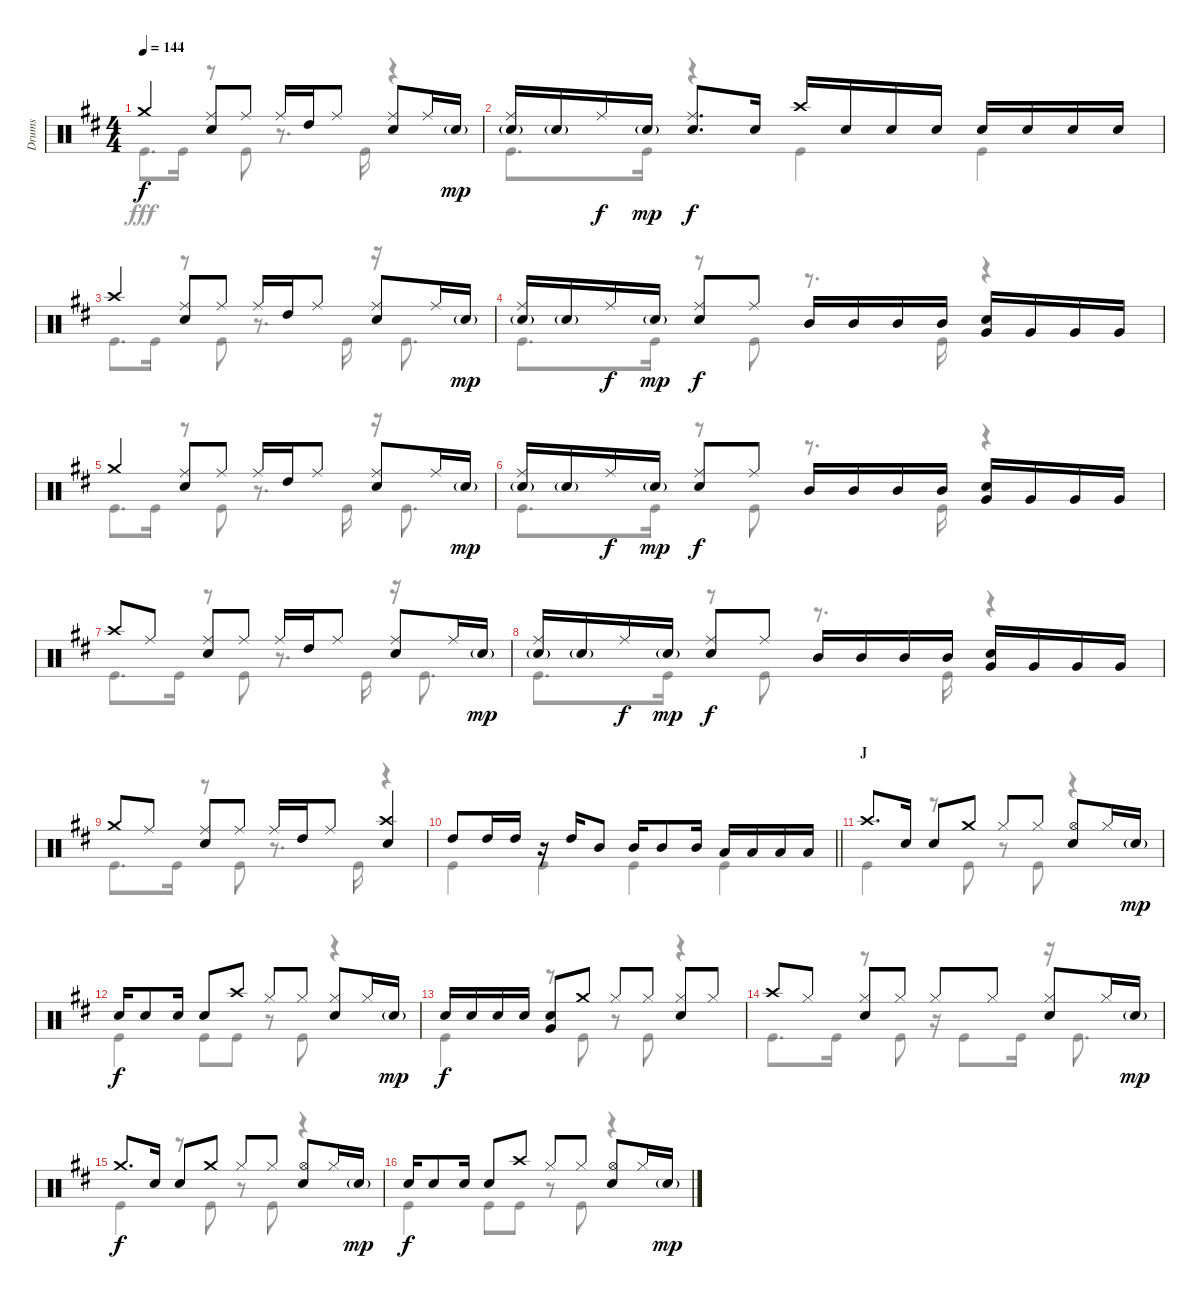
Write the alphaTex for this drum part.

\track ("Drums" "Drums") {instrument percussion}
\staff {score}
\articulation defaults
\voice
\ts (4 4)
\tempo 144
\clef neutral
\ks d "Crash medium (hit)".4{dy f}
("Ride (middle)" "Snare (hit) 2").8 "Ride (middle)".8 "Ride (middle)".16 "High Tom (hit)".16 "Ride (middle)".8 ("Ride (middle)" "Snare (hit) 2").8 "Ride (middle)".16 "Snare (hit) 2"{g}.16{dy mp} |
("Ride (middle)" "Snare (hit) 2"{g}).16 "Snare (hit) 2"{g}.16 "Ride (middle)".16{dy f} "Snare (hit) 2"{g}.16{dy mp} ("Ride (middle)" "Snare (hit) 2").8{d dy f} "Snare (hit) 2".16 "Crash high (hit)".16 "Snare (hit) 2".16 "Snare (hit) 2".16 "Snare (hit) 2".16 "Snare (hit) 2".16 "Snare (hit) 2".16 "Snare (hit) 2".16 "Snare (hit) 2".16 |
"Crash high (hit)".4 ("Ride (middle)" "Snare (hit) 2").8 "Ride (middle)".8 "Ride (middle)".16 "High Tom (hit)".16 "Ride (middle)".8 ("Ride (middle)" "Snare (hit) 2").8 "Ride (middle)".16 "Snare (hit) 2"{g}.16{dy mp} |
("Ride (middle)" "Snare (hit) 2"{g}).16 "Snare (hit) 2"{g}.16 "Ride (middle)".16{dy f} "Snare (hit) 2"{g}.16{dy mp} ("Ride (middle)" "Snare (hit) 2").8{dy f} "Ride (middle)".8 "Mid Tom (hit)".16 "Mid Tom (hit)".16 "Mid Tom (hit)".16 "Mid Tom (hit)".16 ("Snare (hit) 2" "Very Low Tom (hit)").16 "Very Low Tom (hit)".16 "Very Low Tom (hit)".16 "Very Low Tom (hit)".16 |
"Crash medium (hit)".4 ("Ride (middle)" "Snare (hit) 2").8 "Ride (middle)".8 "Ride (middle)".16 "High Tom (hit)".16 "Ride (middle)".8 ("Ride (middle)" "Snare (hit) 2").8 "Ride (middle)".16 "Snare (hit) 2"{g}.16{dy mp} |
("Ride (middle)" "Snare (hit) 2"{g}).16 "Snare (hit) 2"{g}.16 "Ride (middle)".16{dy f} "Snare (hit) 2"{g}.16{dy mp} ("Ride (middle)" "Snare (hit) 2").8{dy f} "Ride (middle)".8 "Mid Tom (hit)".16 "Mid Tom (hit)".16 "Mid Tom (hit)".16 "Mid Tom (hit)".16 ("Snare (hit) 2" "Very Low Tom (hit)").16 "Very Low Tom (hit)".16 "Very Low Tom (hit)".16 "Very Low Tom (hit)".16 |
"Crash high (hit)".8 "Ride (middle)".8 ("Ride (middle)" "Snare (hit) 2").8 "Ride (middle)".8 "Ride (middle)".16 "High Tom (hit)".16 "Ride (middle)".8 ("Ride (middle)" "Snare (hit) 2").8 "Ride (middle)".16 "Snare (hit) 2"{g}.16{dy mp} |
("Ride (middle)" "Snare (hit) 2"{g}).16 "Snare (hit) 2"{g}.16 "Ride (middle)".16{dy f} "Snare (hit) 2"{g}.16{dy mp} ("Ride (middle)" "Snare (hit) 2").8{dy f} "Ride (middle)".8 "Mid Tom (hit)".16 "Mid Tom (hit)".16 "Mid Tom (hit)".16 "Mid Tom (hit)".16 ("Snare (hit) 2" "Very Low Tom (hit)").16 "Very Low Tom (hit)".16 "Very Low Tom (hit)".16 "Very Low Tom (hit)".16 |
"Crash medium (hit)".8 "Ride (middle)".8 ("Ride (middle)" "Snare (hit) 2").8 "Ride (middle)".8 "Ride (middle)".16 "High Tom (hit)".16 "Ride (middle)".8 ("Crash high (hit)" "Snare (hit) 2").4 |
\barLineRight lightlight "High Tom (hit)".8 "High Tom (hit)".16 "High Tom (hit)".16
r.16 "High Tom (hit)".16 "Mid Tom (hit)".8 "Mid Tom (hit)".16 "Mid Tom (hit)".8 "Mid Tom (hit)".16 "Low Tom (hit)".16 "Low Tom (hit)".16 "Low Tom (hit)".16 "Low Tom (hit)".16 |
\section ("" "J")
"Crash high (hit)".8{d} "Snare (hit) 2".16 "Snare (hit) 2".8 "Crash medium (hit)".8 "Hi-Hat (closed)".8 "Hi-Hat (closed)".8 ("Hi-Hat (open)" "Snare (hit) 2").8 "Hi-Hat (closed)".16 "Snare (hit) 2"{g}.16{dy mp} |
"Snare (hit) 2".16{dy f} "Snare (hit) 2".8 "Snare (hit) 2".16 "Snare (hit) 2".8 "Crash high (hit)".8 "Hi-Hat (closed)".8 "Hi-Hat (closed)".8 ("Hi-Hat (closed)" "Snare (hit) 2").8 "Hi-Hat (closed)".16 "Snare (hit) 2"{g}.16{dy mp} |
"Snare (hit) 2".16{dy f} "Snare (hit) 2".16 "Snare (hit) 2".16 "Snare (hit) 2".16 ("Snare (hit) 2" "Very Low Tom (hit)").8 "Crash medium (hit)".8 "Hi-Hat (closed)".8 "Hi-Hat (closed)".8 ("Hi-Hat (closed)" "Snare (hit) 2").8 "Hi-Hat (closed)".8 |
"Crash high (hit)".8 "Hi-Hat (closed)".8 ("Hi-Hat (closed)" "Snare (hit) 2").8 "Hi-Hat (closed)".8 "Hi-Hat (closed)".8 "Hi-Hat (closed)".8 ("Hi-Hat (closed)" "Snare (hit) 2").8 "Hi-Hat (closed)".16 "Snare (hit) 2"{g}.16{dy mp} |
"Crash medium (hit)".8{d dy f} "Snare (hit) 2".16 "Snare (hit) 2".8 "Crash medium (hit)".8 "Hi-Hat (closed)".8 "Hi-Hat (closed)".8 ("Hi-Hat (open)" "Snare (hit) 2").8 "Hi-Hat (closed)".16 "Snare (hit) 2"{g}.16{dy mp} |
"Snare (hit) 2".16{dy f} "Snare (hit) 2".8 "Snare (hit) 2".16 "Snare (hit) 2".8 "Crash high (hit)".8 "Hi-Hat (closed)".8 "Hi-Hat (closed)".8 ("Hi-Hat (open)" "Snare (hit) 2").8 "Hi-Hat (closed)".16 "Snare (hit) 2"{g}.16{dy mp}
\voice
\clef neutral
\ottava regular
\simile none
\ks d "Kick (hit)".8{d dy fff} "Kick (hit)".16
r.8 "Kick (hit)".8 r.8{d} "Kick (hit)".16 r.4 |
"Kick (hit)".8{d} "Kick (hit)".16 r.4 "Kick (hit)".4 "Kick (hit)".4 |
"Kick (hit)".8{d} "Kick (hit)".16 r.8 "Kick (hit)".8 r.8{d} "Kick (hit)".16 r.16 "Kick (hit)".8{d} |
"Kick (hit)".8{d} "Kick (hit)".16 r.8 "Kick (hit)".8 r.8{d} "Kick (hit)".16 r.4 |
"Kick (hit)".8{d} "Kick (hit)".16 r.8 "Kick (hit)".8 r.8{d} "Kick (hit)".16 r.16 "Kick (hit)".8{d} |
"Kick (hit)".8{d} "Kick (hit)".16 r.8 "Kick (hit)".8 r.8{d} "Kick (hit)".16 r.4 |
"Kick (hit)".8{d} "Kick (hit)".16 r.8 "Kick (hit)".8 r.8{d} "Kick (hit)".16 r.16 "Kick (hit)".8{d} |
"Kick (hit)".8{d} "Kick (hit)".16 r.8 "Kick (hit)".8 r.8{d} "Kick (hit)".16 r.4 |
"Kick (hit)".8{d} "Kick (hit)".16 r.8 "Kick (hit)".8 r.8{d} "Kick (hit)".16 r.4 |
\barLineRight lightlight "Kick (hit)".4 "Kick (hit)".4 "Kick (hit)".4 "Kick (hit)".4
|
"Kick (hit)".4 r.8 "Kick (hit)".8 r.8 "Kick (hit)".8 r.4 |
"Kick (hit)".4 "Kick (hit)".8 "Kick (hit)".8 r.8 "Kick (hit)".8 r.4 |
"Kick (hit)".4 r.8 "Kick (hit)".8 r.8 "Kick (hit)".8 r.4 |
"Kick (hit)".8{d} "Kick (hit)".16 r.8 "Kick (hit)".8 r.16 "Kick (hit)".8 "Kick (hit)".16 r.16 "Kick (hit)".8{d} |
"Kick (hit)".4 r.8 "Kick (hit)".8 r.8 "Kick (hit)".8 r.4 |
"Kick (hit)".4 "Kick (hit)".8 "Kick (hit)".8 r.8 "Kick (hit)".8 r.4
